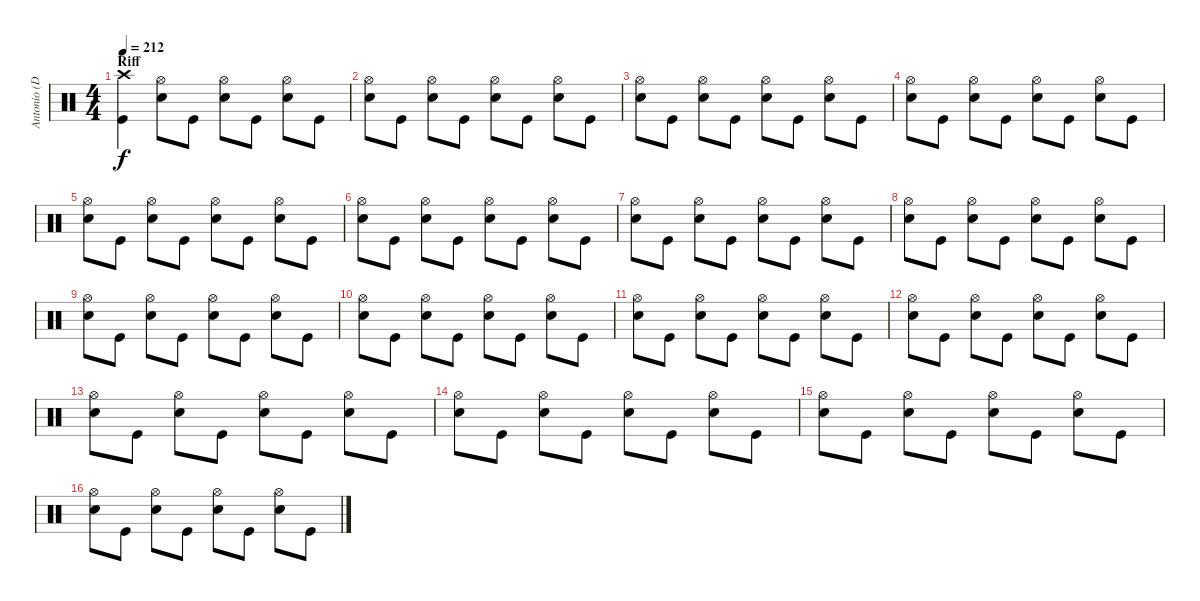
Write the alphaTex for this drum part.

\track ("Antonio (Drums)" "Antonio (D") {instrument percussion}
\staff {score}
\articulation defaults
\ts (4 4)
\section ("" "Riff")
\tempo 212
\clef neutral
\ks c
("Crash high (hit)" "Kick (hit)").4{dy f} ("Hi-Hat (open)" "Electric Snare (hit)").8 "Kick (hit)".8 ("Hi-Hat (open)" "Electric Snare (hit)").8 "Kick (hit)".8 ("Hi-Hat (open)" "Electric Snare (hit)").8 "Kick (hit)".8 |
("Hi-Hat (open)" "Electric Snare (hit)").8 "Kick (hit)".8 ("Hi-Hat (open)" "Electric Snare (hit)").8 "Kick (hit)".8 ("Hi-Hat (open)" "Electric Snare (hit)").8 "Kick (hit)".8 ("Hi-Hat (open)" "Electric Snare (hit)").8 "Kick (hit)".8 |
("Hi-Hat (open)" "Electric Snare (hit)").8 "Kick (hit)".8 ("Hi-Hat (open)" "Electric Snare (hit)").8 "Kick (hit)".8 ("Hi-Hat (open)" "Electric Snare (hit)").8 "Kick (hit)".8 ("Hi-Hat (open)" "Electric Snare (hit)").8 "Kick (hit)".8 |
("Hi-Hat (open)" "Electric Snare (hit)").8 "Kick (hit)".8 ("Hi-Hat (open)" "Electric Snare (hit)").8 "Kick (hit)".8 ("Hi-Hat (open)" "Electric Snare (hit)").8 "Kick (hit)".8 ("Hi-Hat (open)" "Electric Snare (hit)").8 "Kick (hit)".8 |
("Hi-Hat (open)" "Electric Snare (hit)").8 "Kick (hit)".8 ("Hi-Hat (open)" "Electric Snare (hit)").8 "Kick (hit)".8 ("Hi-Hat (open)" "Electric Snare (hit)").8 "Kick (hit)".8 ("Hi-Hat (open)" "Electric Snare (hit)").8 "Kick (hit)".8 |
("Hi-Hat (open)" "Electric Snare (hit)").8 "Kick (hit)".8 ("Hi-Hat (open)" "Electric Snare (hit)").8 "Kick (hit)".8 ("Hi-Hat (open)" "Electric Snare (hit)").8 "Kick (hit)".8 ("Hi-Hat (open)" "Electric Snare (hit)").8 "Kick (hit)".8 |
("Hi-Hat (open)" "Electric Snare (hit)").8 "Kick (hit)".8 ("Hi-Hat (open)" "Electric Snare (hit)").8 "Kick (hit)".8 ("Hi-Hat (open)" "Electric Snare (hit)").8 "Kick (hit)".8 ("Hi-Hat (open)" "Electric Snare (hit)").8 "Kick (hit)".8 |
("Hi-Hat (open)" "Electric Snare (hit)").8 "Kick (hit)".8 ("Hi-Hat (open)" "Electric Snare (hit)").8 "Kick (hit)".8 ("Hi-Hat (open)" "Electric Snare (hit)").8 "Kick (hit)".8 ("Hi-Hat (open)" "Electric Snare (hit)").8 "Kick (hit)".8 |
("Hi-Hat (open)" "Electric Snare (hit)").8 "Kick (hit)".8 ("Hi-Hat (open)" "Electric Snare (hit)").8 "Kick (hit)".8 ("Hi-Hat (open)" "Electric Snare (hit)").8 "Kick (hit)".8 ("Hi-Hat (open)" "Electric Snare (hit)").8 "Kick (hit)".8 |
("Hi-Hat (open)" "Electric Snare (hit)").8 "Kick (hit)".8 ("Hi-Hat (open)" "Electric Snare (hit)").8 "Kick (hit)".8 ("Hi-Hat (open)" "Electric Snare (hit)").8 "Kick (hit)".8 ("Hi-Hat (open)" "Electric Snare (hit)").8 "Kick (hit)".8 |
("Hi-Hat (open)" "Electric Snare (hit)").8 "Kick (hit)".8 ("Hi-Hat (open)" "Electric Snare (hit)").8 "Kick (hit)".8 ("Hi-Hat (open)" "Electric Snare (hit)").8 "Kick (hit)".8 ("Hi-Hat (open)" "Electric Snare (hit)").8 "Kick (hit)".8 |
("Hi-Hat (open)" "Electric Snare (hit)").8 "Kick (hit)".8 ("Hi-Hat (open)" "Electric Snare (hit)").8 "Kick (hit)".8 ("Hi-Hat (open)" "Electric Snare (hit)").8 "Kick (hit)".8 ("Hi-Hat (open)" "Electric Snare (hit)").8 "Kick (hit)".8 |
("Hi-Hat (open)" "Electric Snare (hit)").8 "Kick (hit)".8 ("Hi-Hat (open)" "Electric Snare (hit)").8 "Kick (hit)".8 ("Hi-Hat (open)" "Electric Snare (hit)").8 "Kick (hit)".8 ("Hi-Hat (open)" "Electric Snare (hit)").8 "Kick (hit)".8 |
("Hi-Hat (open)" "Electric Snare (hit)").8 "Kick (hit)".8 ("Hi-Hat (open)" "Electric Snare (hit)").8 "Kick (hit)".8 ("Hi-Hat (open)" "Electric Snare (hit)").8 "Kick (hit)".8 ("Hi-Hat (open)" "Electric Snare (hit)").8 "Kick (hit)".8 |
("Hi-Hat (open)" "Electric Snare (hit)").8 "Kick (hit)".8 ("Hi-Hat (open)" "Electric Snare (hit)").8 "Kick (hit)".8 ("Hi-Hat (open)" "Electric Snare (hit)").8 "Kick (hit)".8 ("Hi-Hat (open)" "Electric Snare (hit)").8 "Kick (hit)".8 |
("Hi-Hat (open)" "Electric Snare (hit)").8 "Kick (hit)".8 ("Hi-Hat (open)" "Electric Snare (hit)").8 "Kick (hit)".8 ("Hi-Hat (open)" "Electric Snare (hit)").8 "Kick (hit)".8 ("Hi-Hat (open)" "Electric Snare (hit)").8 "Kick (hit)".8
